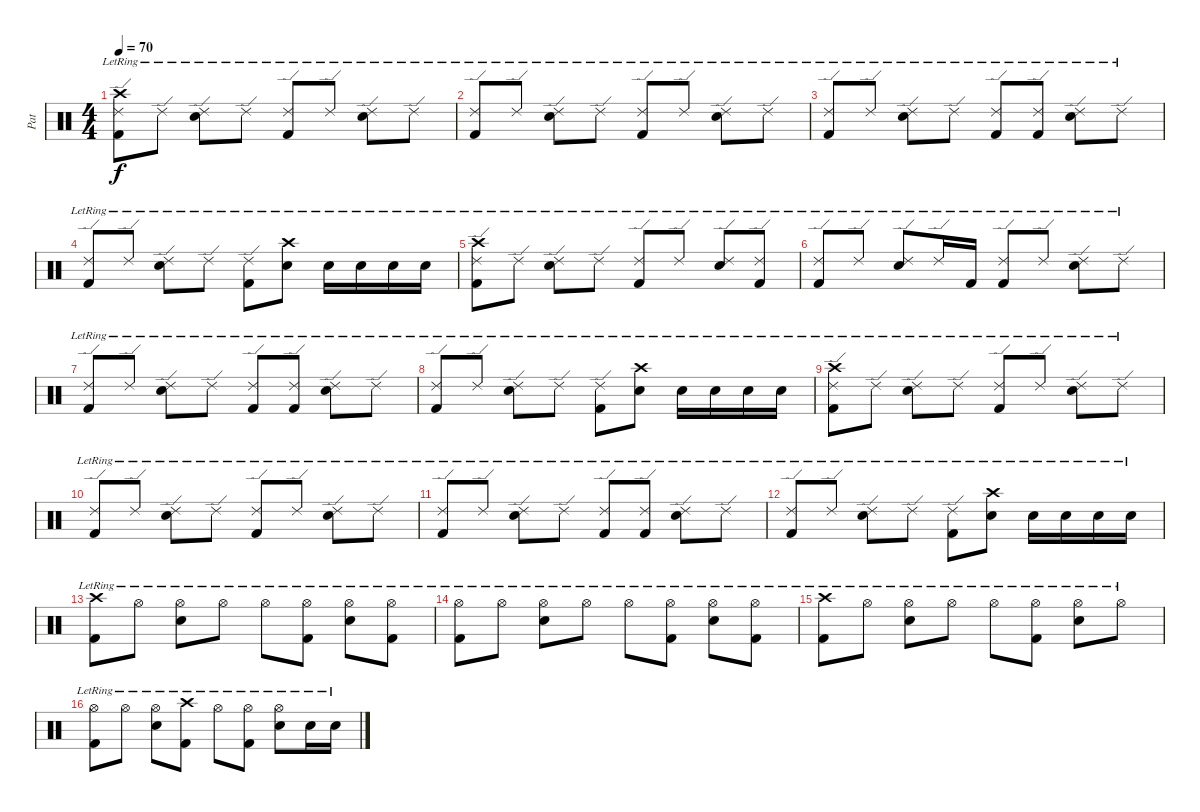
\track ("Pat" "Pat") {instrument percussion}
\staff {score}
\articulation defaults
\ts (4 4)
\tempo 70
\clef neutral
\ks c
("Crash high (hit)"{lr} "Ride (edge) 2"{lr} "Kick (hit) 2"{lr}).8{dy f} "Ride (edge) 2"{lr}.8 ("Ride (edge) 2"{lr} "Electric Snare (hit)"{lr}).8 "Ride (edge) 2"{lr}.8 ("Ride (edge) 2"{lr} "Kick (hit) 2"{lr}).8 "Ride (edge) 2"{lr}.8 ("Ride (edge) 2"{lr} "Electric Snare (hit)"{lr}).8 "Ride (edge) 2"{lr}.8 |
("Ride (edge) 2"{lr} "Kick (hit) 2"{lr}).8 "Ride (edge) 2"{lr}.8 ("Ride (edge) 2"{lr} "Electric Snare (hit)"{lr}).8 "Ride (edge) 2"{lr}.8 ("Ride (edge) 2"{lr} "Kick (hit) 2"{lr}).8 "Ride (edge) 2"{lr}.8 ("Ride (edge) 2"{lr} "Electric Snare (hit)"{lr}).8 "Ride (edge) 2"{lr}.8 |
("Ride (edge) 2"{lr} "Kick (hit) 2"{lr}).8 "Ride (edge) 2"{lr}.8 ("Ride (edge) 2"{lr} "Electric Snare (hit)"{lr}).8 "Ride (edge) 2"{lr}.8 ("Ride (edge) 2"{lr} "Kick (hit) 2"{lr}).8 ("Ride (edge) 2"{lr} "Kick (hit) 2"{lr}).8 ("Ride (edge) 2"{lr} "Electric Snare (hit)"{lr}).8 "Ride (edge) 2"{lr}.8 |
("Ride (edge) 2"{lr} "Kick (hit) 2"{lr}).8 "Ride (edge) 2"{lr}.8 ("Ride (edge) 2"{lr} "Electric Snare (hit)"{lr}).8 "Ride (edge) 2"{lr}.8 ("Ride (edge) 2"{lr} "Kick (hit) 2"{lr}).8 ("Crash high (hit)"{lr} "Electric Snare (hit)"{lr}).8 "Electric Snare (hit)"{lr}.16 "Electric Snare (hit)"{lr}.16 "Electric Snare (hit)"{lr}.16 "Electric Snare (hit)"{lr}.16 |
("Crash high (hit)"{lr} "Ride (edge) 2"{lr} "Kick (hit) 2"{lr}).8 "Ride (edge) 2"{lr}.8 ("Ride (edge) 2"{lr} "Electric Snare (hit)"{lr}).8 "Ride (edge) 2"{lr}.8 ("Ride (edge) 2"{lr} "Kick (hit) 2"{lr}).8 "Ride (edge) 2"{lr}.8 ("Ride (edge) 2"{lr} "Electric Snare (hit)"{lr}).8 ("Ride (edge) 2"{lr} "Kick (hit) 2"{lr}).8 |
("Ride (edge) 2"{lr} "Kick (hit) 2"{lr}).8 "Ride (edge) 2"{lr}.8 ("Ride (edge) 2"{lr} "Electric Snare (hit)"{lr}).8 "Ride (edge) 2"{lr}.16 "Kick (hit) 2"{lr}.16 ("Ride (edge) 2"{lr} "Kick (hit) 2"{lr}).8 "Ride (edge) 2"{lr}.8 ("Ride (edge) 2"{lr} "Electric Snare (hit)"{lr}).8 "Ride (edge) 2"{lr}.8 |
("Ride (edge) 2"{lr} "Kick (hit) 2"{lr}).8 "Ride (edge) 2"{lr}.8 ("Ride (edge) 2"{lr} "Electric Snare (hit)"{lr}).8 "Ride (edge) 2"{lr}.8 ("Ride (edge) 2"{lr} "Kick (hit) 2"{lr}).8 ("Ride (edge) 2"{lr} "Kick (hit) 2"{lr}).8 ("Ride (edge) 2"{lr} "Electric Snare (hit)"{lr}).8 "Ride (edge) 2"{lr}.8 |
("Ride (edge) 2"{lr} "Kick (hit) 2"{lr}).8 "Ride (edge) 2"{lr}.8 ("Ride (edge) 2"{lr} "Electric Snare (hit)"{lr}).8 "Ride (edge) 2"{lr}.8 ("Ride (edge) 2"{lr} "Kick (hit) 2"{lr}).8 ("Crash high (hit)"{lr} "Electric Snare (hit)"{lr}).8 "Electric Snare (hit)"{lr}.16 "Electric Snare (hit)"{lr}.16 "Electric Snare (hit)"{lr}.16 "Electric Snare (hit)"{lr}.16 |
("Crash high (hit)"{lr} "Ride (edge) 2"{lr} "Kick (hit) 2"{lr}).8 "Ride (edge) 2"{lr}.8 ("Ride (edge) 2"{lr} "Electric Snare (hit)"{lr}).8 "Ride (edge) 2"{lr}.8 ("Ride (edge) 2"{lr} "Kick (hit) 2"{lr}).8 "Ride (edge) 2"{lr}.8 ("Ride (edge) 2"{lr} "Electric Snare (hit)"{lr}).8 "Ride (edge) 2"{lr}.8 |
("Ride (edge) 2"{lr} "Kick (hit) 2"{lr}).8 "Ride (edge) 2"{lr}.8 ("Ride (edge) 2"{lr} "Electric Snare (hit)"{lr}).8 "Ride (edge) 2"{lr}.8 ("Ride (edge) 2"{lr} "Kick (hit) 2"{lr}).8 "Ride (edge) 2"{lr}.8 ("Ride (edge) 2"{lr} "Electric Snare (hit)"{lr}).8 "Ride (edge) 2"{lr}.8 |
("Ride (edge) 2"{lr} "Kick (hit) 2"{lr}).8 "Ride (edge) 2"{lr}.8 ("Ride (edge) 2"{lr} "Electric Snare (hit)"{lr}).8 "Ride (edge) 2"{lr}.8 ("Ride (edge) 2"{lr} "Kick (hit) 2"{lr}).8 ("Ride (edge) 2"{lr} "Kick (hit) 2"{lr}).8 ("Ride (edge) 2"{lr} "Electric Snare (hit)"{lr}).8 "Ride (edge) 2"{lr}.8 |
("Ride (edge) 2"{lr} "Kick (hit) 2"{lr}).8 "Ride (edge) 2"{lr}.8 ("Ride (edge) 2"{lr} "Electric Snare (hit)"{lr}).8 "Ride (edge) 2"{lr}.8 ("Ride (edge) 2"{lr} "Kick (hit) 2"{lr}).8 ("Crash high (hit)"{lr} "Electric Snare (hit)"{lr}).8 "Electric Snare (hit)"{lr}.16 "Electric Snare (hit)"{lr}.16 "Electric Snare (hit)"{lr}.16 "Electric Snare (hit)"{lr}.16 |
("Crash high (hit)"{lr} "Kick (hit) 2"{lr}).8 "Hi-Hat (open)"{lr}.8 ("Hi-Hat (open)"{lr} "Electric Snare (hit)"{lr}).8 "Hi-Hat (open)"{lr}.8 "Hi-Hat (open)"{lr}.8 ("Hi-Hat (open)"{lr} "Kick (hit) 2"{lr}).8 ("Hi-Hat (open)"{lr} "Electric Snare (hit)"{lr}).8 ("Hi-Hat (open)"{lr} "Kick (hit) 2"{lr}).8 |
("Hi-Hat (open)"{lr} "Kick (hit) 2"{lr}).8 "Hi-Hat (open)"{lr}.8 ("Hi-Hat (open)"{lr} "Electric Snare (hit)"{lr}).8 "Hi-Hat (open)"{lr}.8 "Hi-Hat (open)"{lr}.8 ("Hi-Hat (open)"{lr} "Kick (hit) 2"{lr}).8 ("Hi-Hat (open)"{lr} "Electric Snare (hit)"{lr}).8 ("Hi-Hat (open)"{lr} "Kick (hit) 2"{lr}).8 |
("Crash high (hit)"{lr} "Kick (hit) 2"{lr}).8 "Hi-Hat (open)"{lr}.8 ("Hi-Hat (open)"{lr} "Electric Snare (hit)"{lr}).8 "Hi-Hat (open)"{lr}.8 "Hi-Hat (open)"{lr}.8 ("Hi-Hat (open)"{lr} "Kick (hit) 2"{lr}).8 ("Hi-Hat (open)"{lr} "Electric Snare (hit)"{lr}).8 "Hi-Hat (open)"{lr}.8 |
("Hi-Hat (open)"{lr} "Kick (hit) 2"{lr}).8 "Hi-Hat (open)"{lr}.8 ("Hi-Hat (open)"{lr} "Electric Snare (hit)"{lr}).8 ("Crash high (hit)"{lr} "Kick (hit) 2"{lr}).8 "Hi-Hat (open)"{lr}.8 ("Hi-Hat (open)"{lr} "Kick (hit) 2"{lr}).8 ("Hi-Hat (open)"{lr} "Electric Snare (hit)"{lr}).8 "Electric Snare (hit)"{lr}.16 "Electric Snare (hit)"{lr}.16
